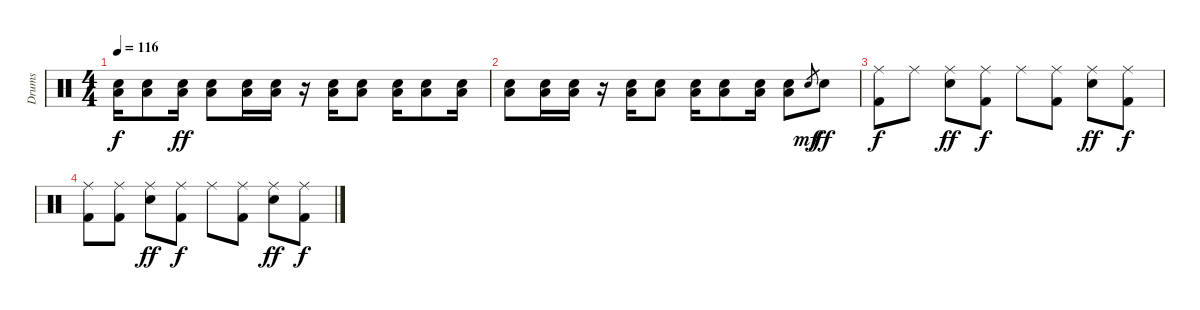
\track ("Drums" "Drums") {instrument percussion}
\staff {score}
\articulation defaults
\ts (4 4)
\tempo 116
\clef neutral
\ks c
("Low Tom (hit)" "Electric Snare (hit)").16{dy f volume 3} ("Low Tom (hit)" "Electric Snare (hit)").8 ("Low Tom (hit)" "Electric Snare (hit)").16{dy ff} ("Low Tom (hit)" "Electric Snare (hit)").8 ("Low Tom (hit)" "Electric Snare (hit)").16 ("Low Tom (hit)" "Electric Snare (hit)").16 r.16 ("Low Tom (hit)" "Electric Snare (hit)").16 ("Low Tom (hit)" "Electric Snare (hit)").8 ("Low Tom (hit)" "Electric Snare (hit)").16 ("Low Tom (hit)" "Electric Snare (hit)").8 ("Low Tom (hit)" "Electric Snare (hit)").16 |
("Low Tom (hit)" "Electric Snare (hit)").8 ("Low Tom (hit)" "Electric Snare (hit)").16 ("Low Tom (hit)" "Electric Snare (hit)").16 r.16 ("Low Tom (hit)" "Electric Snare (hit)").16 ("Low Tom (hit)" "Electric Snare (hit)").8 ("Low Tom (hit)" "Electric Snare (hit)").16 ("Low Tom (hit)" "Electric Snare (hit)").8 ("Low Tom (hit)" "Electric Snare (hit)").16 ("Low Tom (hit)" "Electric Snare (hit)").8 "Electric Snare (hit)".8{gr dy mf} "Electric Snare (hit)".8{dy ff} |
("Ride (middle)" "Kick (hit) 2").8{dy f volume 0} "Ride (middle)".8 ("Ride (middle)" "Electric Snare (hit)").8{dy ff} ("Ride (middle)" "Kick (hit) 2").8{dy f} "Ride (middle)".8 ("Ride (middle)" "Kick (hit) 2").8 ("Ride (middle)" "Electric Snare (hit)").8{dy ff} ("Ride (middle)" "Kick (hit) 2").8{dy f} |
("Ride (middle)" "Kick (hit) 2").8 ("Ride (middle)" "Kick (hit) 2").8 ("Ride (middle)" "Electric Snare (hit)").8{dy ff} ("Ride (middle)" "Kick (hit) 2").8{dy f} "Ride (middle)".8 ("Ride (middle)" "Kick (hit) 2").8 ("Ride (middle)" "Electric Snare (hit)").8{dy ff} ("Ride (middle)" "Kick (hit) 2").8{dy f}
